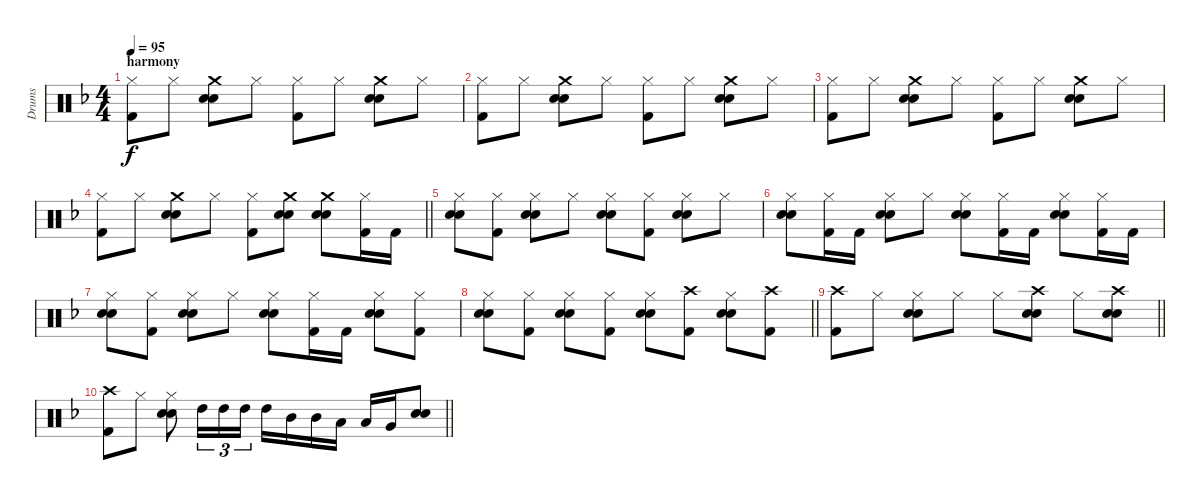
\track ("Drums" "Drums") {instrument percussion}
\staff {score}
\articulation defaults
\ts (4 4)
\section ("" "harmony")
\tempo 95
\clef neutral
\ks dminor
("Hi-Hat (closed)" "Kick (hit) 2").8{dy f} "Hi-Hat (closed)".8 ("Crash medium (hit)" "Snare (hit) 2" "Electric Snare (hit)").8 "Hi-Hat (closed)".8 ("Hi-Hat (closed)" "Kick (hit) 2").8 "Hi-Hat (closed)".8 ("Crash medium (hit)" "Snare (hit) 2" "Electric Snare (hit)").8 "Hi-Hat (closed)".8 |
("Hi-Hat (closed)" "Kick (hit) 2").8 "Hi-Hat (closed)".8 ("Crash medium (hit)" "Snare (hit) 2" "Electric Snare (hit)").8 "Hi-Hat (closed)".8 ("Hi-Hat (closed)" "Kick (hit) 2").8 "Hi-Hat (closed)".8 ("Crash medium (hit)" "Snare (hit) 2" "Electric Snare (hit)").8 "Hi-Hat (closed)".8 |
("Hi-Hat (closed)" "Kick (hit) 2").8 "Hi-Hat (closed)".8 ("Crash medium (hit)" "Snare (hit) 2" "Electric Snare (hit)").8 "Hi-Hat (closed)".8 ("Hi-Hat (closed)" "Kick (hit) 2").8 "Hi-Hat (closed)".8 ("Crash medium (hit)" "Snare (hit) 2" "Electric Snare (hit)").8 "Hi-Hat (closed)".8 |
\barLineRight lightlight
("Hi-Hat (closed)" "Kick (hit) 2").8 "Hi-Hat (closed)".8 ("Crash medium (hit)" "Snare (hit) 2" "Electric Snare (hit)").8 "Hi-Hat (closed)".8 ("Hi-Hat (closed)" "Kick (hit) 2").8 ("Crash medium (hit)" "Snare (hit) 2" "Electric Snare (hit)").8 ("Crash medium (hit)" "Snare (hit) 2" "Electric Snare (hit)").8 ("Hi-Hat (closed)" "Kick (hit) 2").16 "Kick (hit) 2".16 |
("Hi-Hat (closed)" "Snare (hit) 2" "Electric Snare (hit)").8 ("Hi-Hat (closed)" "Kick (hit) 2").8 ("Hi-Hat (closed)" "Snare (hit) 2" "Electric Snare (hit)").8 "Hi-Hat (closed)".8 ("Hi-Hat (closed)" "Snare (hit) 2" "Electric Snare (hit)").8 ("Hi-Hat (closed)" "Kick (hit) 2").8 ("Hi-Hat (closed)" "Snare (hit) 2" "Electric Snare (hit)").8 "Hi-Hat (closed)".8 |
("Hi-Hat (closed)" "Snare (hit) 2" "Electric Snare (hit)").8 ("Hi-Hat (closed)" "Kick (hit) 2").16 "Kick (hit) 2".16 ("Hi-Hat (closed)" "Snare (hit) 2" "Electric Snare (hit)").8 "Hi-Hat (closed)".8 ("Hi-Hat (closed)" "Snare (hit) 2" "Electric Snare (hit)").8 ("Hi-Hat (closed)" "Kick (hit) 2").16 "Kick (hit) 2".16 ("Hi-Hat (closed)" "Snare (hit) 2" "Electric Snare (hit)").8 ("Hi-Hat (closed)" "Kick (hit) 2").16 "Kick (hit) 2".16 |
("Hi-Hat (closed)" "Snare (hit) 2" "Electric Snare (hit)").8 ("Hi-Hat (closed)" "Kick (hit) 2").8 ("Hi-Hat (closed)" "Snare (hit) 2" "Electric Snare (hit)").8 "Hi-Hat (closed)".8 ("Hi-Hat (closed)" "Snare (hit) 2" "Electric Snare (hit)").8 ("Hi-Hat (closed)" "Kick (hit) 2").16 "Kick (hit) 2".16 ("Hi-Hat (closed)" "Snare (hit) 2" "Electric Snare (hit)").8 ("Hi-Hat (closed)" "Kick (hit) 2").8 |
\barLineRight lightlight
("Hi-Hat (closed)" "Snare (hit) 2" "Electric Snare (hit)").8 ("Hi-Hat (closed)" "Kick (hit) 2").8 ("Hi-Hat (closed)" "Snare (hit) 2" "Electric Snare (hit)").8 ("Hi-Hat (closed)" "Kick (hit) 2").8 ("Hi-Hat (closed)" "Snare (hit) 2" "Electric Snare (hit)").8 ("Crash high (hit)" "Kick (hit) 2").8 ("Hi-Hat (closed)" "Snare (hit) 2" "Electric Snare (hit)").8 ("Crash high (hit)" "Kick (hit) 2").8 |
\barLineRight lightlight
("Crash high (hit)" "Kick (hit) 2").8 "Hi-Hat (closed)".8 ("Hi-Hat (closed)" "Snare (hit) 2" "Electric Snare (hit)").8 "Hi-Hat (closed)".8 "Hi-Hat (closed)".8 ("Crash high (hit)" "Snare (hit) 2" "Electric Snare (hit)").8 "Hi-Hat (closed)".8 ("Crash high (hit)" "Snare (hit) 2" "Electric Snare (hit)").8 |
\barLineRight lightlight
("Crash high (hit)" "Kick (hit) 2").8 "Hi-Hat (closed)".8 ("Hi-Hat (closed)" "Snare (hit) 2" "Electric Snare (hit)").8 "High Tom (hit)".16{tu (3 2)} "High Tom (hit)".16{tu (3 2)} "High Tom (hit)".16{tu (3 2)} "High Tom (hit)".16 "Mid Tom (hit)".16 "Mid Tom (hit)".16 "Low Tom (hit)".16 "Low Tom (hit)".16 "Very Low Tom (hit)".16 ("Snare (hit) 2" "Electric Snare (hit)").8
